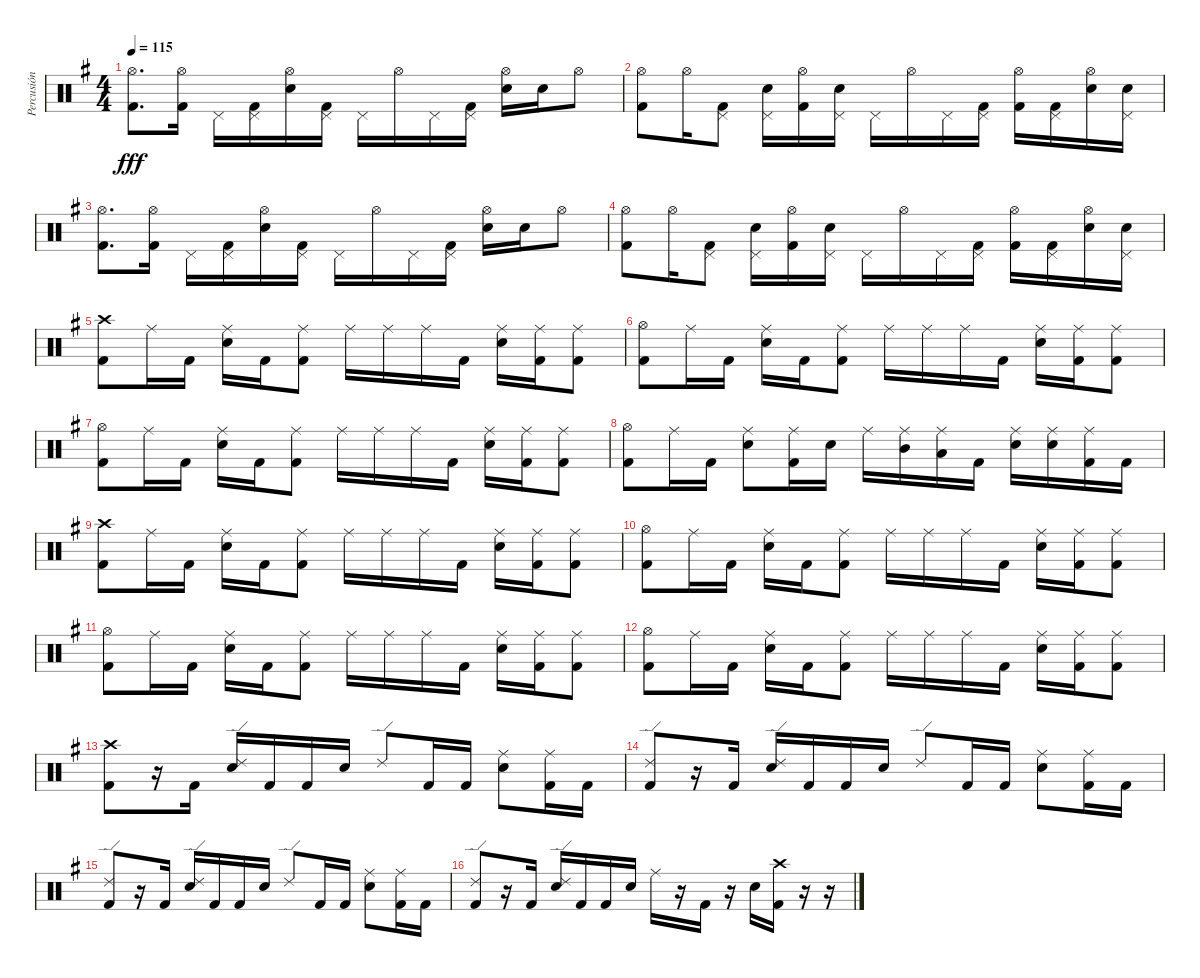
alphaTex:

\track ("Percusión" "Percusión") {instrument percussion}
\staff {score}
\articulation defaults
\ts (4 4)
\tempo 115
\clef neutral
\ks g
("Hi-Hat (open)" "Kick (hit) 2").8{d dy fff} ("Hi-Hat (open)" "Kick (hit) 2").16 "Pedal Hi-Hat (hit)".16 ("Pedal Hi-Hat (hit)" "Kick (hit) 2").16 ("Hi-Hat (open)" "Electric Snare (hit)").16 ("Pedal Hi-Hat (hit)" "Kick (hit) 2").16 "Pedal Hi-Hat (hit)".16 "Hi-Hat (open)".16 "Pedal Hi-Hat (hit)".16 ("Pedal Hi-Hat (hit)" "Kick (hit) 2").16 ("Hi-Hat (open)" "Electric Snare (hit)").16 "Electric Snare (hit)".16 "Hi-Hat (open)".8 |
("Hi-Hat (open)" "Kick (hit) 2").8 "Hi-Hat (open)".16 ("Pedal Hi-Hat (hit)" "Kick (hit) 2").8 ("Pedal Hi-Hat (hit)" "Electric Snare (hit)").16 ("Hi-Hat (open)" "Kick (hit) 2").16 ("Pedal Hi-Hat (hit)" "Electric Snare (hit)").16 "Pedal Hi-Hat (hit)".16 "Hi-Hat (open)".16 "Pedal Hi-Hat (hit)".16 ("Pedal Hi-Hat (hit)" "Kick (hit) 2").16 ("Hi-Hat (open)" "Kick (hit) 2").16 ("Pedal Hi-Hat (hit)" "Kick (hit) 2").16 ("Hi-Hat (open)" "Electric Snare (hit)").16 ("Pedal Hi-Hat (hit)" "Electric Snare (hit)").16 |
("Hi-Hat (open)" "Kick (hit) 2").8{d} ("Hi-Hat (open)" "Kick (hit) 2").16 "Pedal Hi-Hat (hit)".16 ("Pedal Hi-Hat (hit)" "Kick (hit) 2").16 ("Hi-Hat (open)" "Electric Snare (hit)").16 ("Pedal Hi-Hat (hit)" "Kick (hit) 2").16 "Pedal Hi-Hat (hit)".16 "Hi-Hat (open)".16 "Pedal Hi-Hat (hit)".16 ("Pedal Hi-Hat (hit)" "Kick (hit) 2").16 ("Hi-Hat (open)" "Electric Snare (hit)").16 "Electric Snare (hit)".16 "Hi-Hat (open)".8 |
("Hi-Hat (open)" "Kick (hit) 2").8 "Hi-Hat (open)".16 ("Pedal Hi-Hat (hit)" "Kick (hit) 2").8 ("Pedal Hi-Hat (hit)" "Electric Snare (hit)").16 ("Hi-Hat (open)" "Kick (hit) 2").16 ("Pedal Hi-Hat (hit)" "Electric Snare (hit)").16 "Pedal Hi-Hat (hit)".16 "Hi-Hat (open)".16 "Pedal Hi-Hat (hit)".16 ("Pedal Hi-Hat (hit)" "Kick (hit) 2").16 ("Hi-Hat (open)" "Kick (hit) 2").16 ("Pedal Hi-Hat (hit)" "Kick (hit) 2").16 ("Hi-Hat (open)" "Electric Snare (hit)").16 ("Pedal Hi-Hat (hit)" "Electric Snare (hit)").16 |
("Crash high (hit)" "Kick (hit) 2").8 "Ride (middle)".16 "Kick (hit) 2".16 ("Ride (middle)" "Electric Snare (hit)").16 "Kick (hit) 2".16 ("Ride (middle)" "Kick (hit) 2").8 "Ride (middle)".16 "Ride (middle)".16 "Ride (middle)".16 "Kick (hit) 2".16 ("Ride (middle)" "Electric Snare (hit)").16 ("Ride (middle)" "Kick (hit) 2").16 ("Ride (middle)" "Kick (hit) 2").8 |
("Hi-Hat (open)" "Kick (hit) 2").8 "Ride (middle)".16 "Kick (hit) 2".16 ("Ride (middle)" "Electric Snare (hit)").16 "Kick (hit) 2".16 ("Ride (middle)" "Kick (hit) 2").8 "Ride (middle)".16 "Ride (middle)".16 "Ride (middle)".16 "Kick (hit) 2".16 ("Ride (middle)" "Electric Snare (hit)").16 ("Ride (middle)" "Kick (hit) 2").16 ("Ride (middle)" "Kick (hit) 2").8 |
("Hi-Hat (open)" "Kick (hit) 2").8 "Ride (middle)".16 "Kick (hit) 2".16 ("Ride (middle)" "Electric Snare (hit)").16 "Kick (hit) 2".16 ("Ride (middle)" "Kick (hit) 2").8 "Ride (middle)".16 "Ride (middle)".16 "Ride (middle)".16 "Kick (hit) 2".16 ("Ride (middle)" "Electric Snare (hit)").16 ("Ride (middle)" "Kick (hit) 2").16 ("Ride (middle)" "Kick (hit) 2").8 |
("Hi-Hat (open)" "Kick (hit) 2").8 "Ride (middle)".16 "Kick (hit) 2".16 ("Ride (middle)" "Electric Snare (hit)").8 ("Ride (middle)" "Kick (hit) 2").16 "Electric Snare (hit)".16 "Ride (middle)".16 ("Ride (middle)" "Mid Tom (hit)").16 ("Ride (middle)" "Low Tom (hit)").16 "Kick (hit) 2".16 ("Ride (middle)" "Electric Snare (hit)").16 ("Ride (middle)" "Electric Snare (hit)").16 ("Ride (middle)" "Kick (hit) 2").16 "Kick (hit) 2".16 |
("Crash high (hit)" "Kick (hit) 2").8 "Ride (middle)".16 "Kick (hit) 2".16 ("Ride (middle)" "Electric Snare (hit)").16 "Kick (hit) 2".16 ("Ride (middle)" "Kick (hit) 2").8 "Ride (middle)".16 "Ride (middle)".16 "Ride (middle)".16 "Kick (hit) 2".16 ("Ride (middle)" "Electric Snare (hit)").16 ("Ride (middle)" "Kick (hit) 2").16 ("Ride (middle)" "Kick (hit) 2").8 |
("Hi-Hat (open)" "Kick (hit) 2").8 "Ride (middle)".16 "Kick (hit) 2".16 ("Ride (middle)" "Electric Snare (hit)").16 "Kick (hit) 2".16 ("Ride (middle)" "Kick (hit) 2").8 "Ride (middle)".16 "Ride (middle)".16 "Ride (middle)".16 "Kick (hit) 2".16 ("Ride (middle)" "Electric Snare (hit)").16 ("Ride (middle)" "Kick (hit) 2").16 ("Ride (middle)" "Kick (hit) 2").8 |
("Hi-Hat (open)" "Kick (hit) 2").8 "Ride (middle)".16 "Kick (hit) 2".16 ("Ride (middle)" "Electric Snare (hit)").16 "Kick (hit) 2".16 ("Ride (middle)" "Kick (hit) 2").8 "Ride (middle)".16 "Ride (middle)".16 "Ride (middle)".16 "Kick (hit) 2".16 ("Ride (middle)" "Electric Snare (hit)").16 ("Ride (middle)" "Kick (hit) 2").16 ("Ride (middle)" "Kick (hit) 2").8 |
("Hi-Hat (open)" "Kick (hit) 2").8 "Ride (middle)".16 "Kick (hit) 2".16 ("Ride (middle)" "Electric Snare (hit)").16 "Kick (hit) 2".16 ("Ride (middle)" "Kick (hit) 2").8 "Ride (middle)".16 "Ride (middle)".16 "Ride (middle)".16 "Kick (hit) 2".16 ("Ride (middle)" "Electric Snare (hit)").16 ("Ride (middle)" "Kick (hit) 2").16 ("Ride (middle)" "Kick (hit) 2").8 |
("Crash high (hit)" "Kick (hit) 2").8 r.16 "Kick (hit) 2".16 ("Ride (edge) 2" "Electric Snare (hit)").16 "Kick (hit) 2".16 "Kick (hit) 2".16 "Electric Snare (hit)".16 "Ride (edge) 2".8 "Kick (hit) 2".16 "Kick (hit) 2".16 ("Ride (middle)" "Electric Snare (hit)").8 ("Ride (middle)" "Kick (hit) 2").16 "Kick (hit) 2".16 |
("Ride (edge) 2" "Kick (hit) 2").8 r.16 "Kick (hit) 2".16 ("Ride (edge) 2" "Electric Snare (hit)").16 "Kick (hit) 2".16 "Kick (hit) 2".16 "Electric Snare (hit)".16 "Ride (edge) 2".8 "Kick (hit) 2".16 "Kick (hit) 2".16 ("Ride (middle)" "Electric Snare (hit)").8 ("Ride (middle)" "Kick (hit) 2").16 "Kick (hit) 2".16 |
("Ride (edge) 2" "Kick (hit) 2").8 r.16 "Kick (hit) 2".16 ("Ride (edge) 2" "Electric Snare (hit)").16 "Kick (hit) 2".16 "Kick (hit) 2".16 "Electric Snare (hit)".16 "Ride (edge) 2".8 "Kick (hit) 2".16 "Kick (hit) 2".16 ("Ride (middle)" "Electric Snare (hit)").8 ("Ride (middle)" "Kick (hit) 2").16 "Kick (hit) 2".16 |
("Ride (edge) 2" "Kick (hit) 2").8 r.16 "Kick (hit) 2".16 ("Ride (edge) 2" "Electric Snare (hit)").16 "Kick (hit) 2".16 "Kick (hit) 2".16 "Electric Snare (hit)".16 "Ride (middle)".16 r.16 "Kick (hit) 2".16 r.16 "Electric Snare (hit)".16 ("Crash high (hit)" "Kick (hit) 2").16 r.16 r.16
